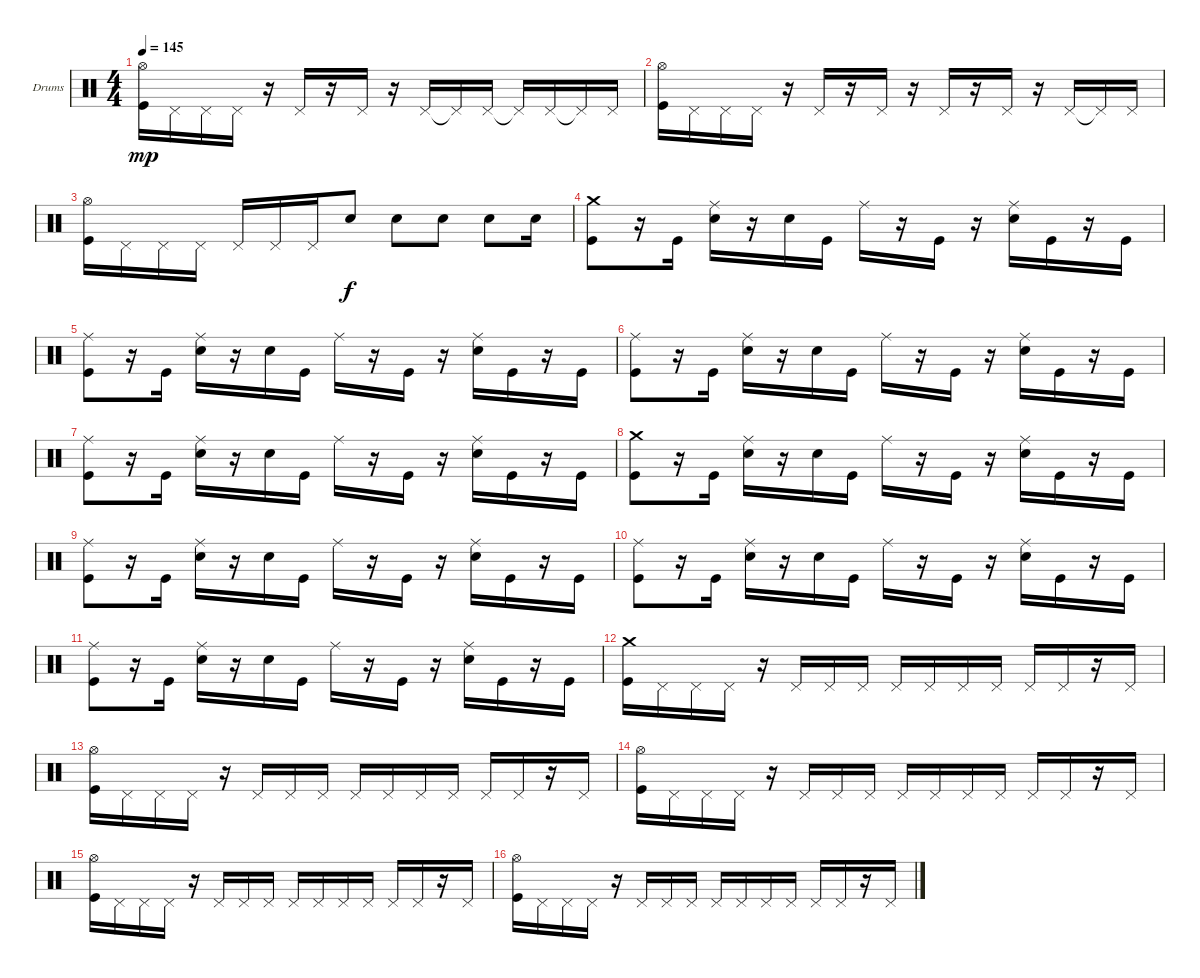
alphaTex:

\defaultSystemsLayout 4
\bracketExtendMode groupsimilarinstruments
\firstSystemTrackNameOrientation horizontal
\otherSystemsTrackNameOrientation horizontal
\track ("Moe Carlson" "Drums") {instrument percussion}
\staff {score}
\articulation defaults
\ts (4 4)
\tempo 145
\clef neutral
\ks c
("Kick (hit)" "Hi-Hat (open)").16{dy mp} "Pedal Hi-Hat (hit)".16 "Pedal Hi-Hat (hit)".16 "Pedal Hi-Hat (hit)".16 r.16 "Pedal Hi-Hat (hit)".16 r.16 "Pedal Hi-Hat (hit)".16 r.16 "Pedal Hi-Hat (hit)".16 "Pedal Hi-Hat (hit)"{t}.16 "Pedal Hi-Hat (hit)".16 "Pedal Hi-Hat (hit)"{t}.16 "Pedal Hi-Hat (hit)".16 "Pedal Hi-Hat (hit)"{t}.16 "Pedal Hi-Hat (hit)".16 |
("Kick (hit)" "Hi-Hat (open)").16 "Pedal Hi-Hat (hit)".16 "Pedal Hi-Hat (hit)".16 "Pedal Hi-Hat (hit)".16 r.16 "Pedal Hi-Hat (hit)".16 r.16 "Pedal Hi-Hat (hit)".16 r.16 "Pedal Hi-Hat (hit)".16 r.16 "Pedal Hi-Hat (hit)".16 r.16 "Pedal Hi-Hat (hit)".16 "Pedal Hi-Hat (hit)"{t}.16 "Pedal Hi-Hat (hit)".16 |
("Kick (hit)" "Hi-Hat (open)").16 "Pedal Hi-Hat (hit)".16 "Pedal Hi-Hat (hit)".16 "Pedal Hi-Hat (hit)".16 "Pedal Hi-Hat (hit)".16 "Pedal Hi-Hat (hit)".16 "Pedal Hi-Hat (hit)".16 "Snare (hit) 2".8{dy f} "Snare (hit) 2".8 "Snare (hit) 2".8 "Snare (hit) 2".8 "Snare (hit) 2".16 |
("Crash medium (hit)" "Kick (hit)").8 r.16 "Kick (hit)".16 ("Snare (hit) 2" "Ride (middle)").16 r.16 "Snare (hit) 2".16 "Kick (hit)".16 "Ride (middle)".16 r.16 "Kick (hit)".16 r.16 ("Snare (hit) 2" "Ride (middle)").16 "Kick (hit)".16 r.16 "Kick (hit)".16 |
("Kick (hit)" "Ride (middle)").8 r.16 "Kick (hit)".16 ("Snare (hit) 2" "Ride (middle)").16 r.16 "Snare (hit) 2".16 "Kick (hit)".16 "Ride (middle)".16 r.16 "Kick (hit)".16 r.16 ("Snare (hit) 2" "Ride (middle)").16 "Kick (hit)".16 r.16 "Kick (hit)".16 |
("Kick (hit)" "Ride (middle)").8 r.16 "Kick (hit)".16 ("Snare (hit) 2" "Ride (middle)").16 r.16 "Snare (hit) 2".16 "Kick (hit)".16 "Ride (middle)".16 r.16 "Kick (hit)".16 r.16 ("Snare (hit) 2" "Ride (middle)").16 "Kick (hit)".16 r.16 "Kick (hit)".16 |
("Kick (hit)" "Ride (middle)").8 r.16 "Kick (hit)".16 ("Snare (hit) 2" "Ride (middle)").16 r.16 "Snare (hit) 2".16 "Kick (hit)".16 "Ride (middle)".16 r.16 "Kick (hit)".16 r.16 ("Snare (hit) 2" "Ride (middle)").16 "Kick (hit)".16 r.16 "Kick (hit)".16 |
("Crash medium (hit)" "Kick (hit)").8 r.16 "Kick (hit)".16 ("Snare (hit) 2" "Ride (middle)").16 r.16 "Snare (hit) 2".16 "Kick (hit)".16 "Ride (middle)".16 r.16 "Kick (hit)".16 r.16 ("Snare (hit) 2" "Ride (middle)").16 "Kick (hit)".16 r.16 "Kick (hit)".16 |
("Kick (hit)" "Ride (middle)").8 r.16 "Kick (hit)".16 ("Snare (hit) 2" "Ride (middle)").16 r.16 "Snare (hit) 2".16 "Kick (hit)".16 "Ride (middle)".16 r.16 "Kick (hit)".16 r.16 ("Snare (hit) 2" "Ride (middle)").16 "Kick (hit)".16 r.16 "Kick (hit)".16 |
("Kick (hit)" "Ride (middle)").8 r.16 "Kick (hit)".16 ("Snare (hit) 2" "Ride (middle)").16 r.16 "Snare (hit) 2".16 "Kick (hit)".16 "Ride (middle)".16 r.16 "Kick (hit)".16 r.16 ("Snare (hit) 2" "Ride (middle)").16 "Kick (hit)".16 r.16 "Kick (hit)".16 |
("Kick (hit)" "Ride (middle)").8 r.16 "Kick (hit)".16 ("Snare (hit) 2" "Ride (middle)").16 r.16 "Snare (hit) 2".16 "Kick (hit)".16 "Ride (middle)".16 r.16 "Kick (hit)".16 r.16 ("Snare (hit) 2" "Ride (middle)").16 "Kick (hit)".16 r.16 "Kick (hit)".16 |
("Kick (hit)" "Crash medium (hit)").16 "Pedal Hi-Hat (hit)".16 "Pedal Hi-Hat (hit)".16 "Pedal Hi-Hat (hit)".16 r.16 "Pedal Hi-Hat (hit)".16 "Pedal Hi-Hat (hit)".16 "Pedal Hi-Hat (hit)".16 "Pedal Hi-Hat (hit)".16 "Pedal Hi-Hat (hit)".16 "Pedal Hi-Hat (hit)".16 "Pedal Hi-Hat (hit)".16 "Pedal Hi-Hat (hit)".16 "Pedal Hi-Hat (hit)".16 r.16 "Pedal Hi-Hat (hit)".16 |
("Kick (hit)" "Hi-Hat (open)").16 "Pedal Hi-Hat (hit)".16 "Pedal Hi-Hat (hit)".16 "Pedal Hi-Hat (hit)".16 r.16 "Pedal Hi-Hat (hit)".16 "Pedal Hi-Hat (hit)".16 "Pedal Hi-Hat (hit)".16 "Pedal Hi-Hat (hit)".16 "Pedal Hi-Hat (hit)".16 "Pedal Hi-Hat (hit)".16 "Pedal Hi-Hat (hit)".16 "Pedal Hi-Hat (hit)".16 "Pedal Hi-Hat (hit)".16 r.16 "Pedal Hi-Hat (hit)".16 |
("Kick (hit)" "Hi-Hat (open)").16 "Pedal Hi-Hat (hit)".16 "Pedal Hi-Hat (hit)".16 "Pedal Hi-Hat (hit)".16 r.16 "Pedal Hi-Hat (hit)".16 "Pedal Hi-Hat (hit)".16 "Pedal Hi-Hat (hit)".16 "Pedal Hi-Hat (hit)".16 "Pedal Hi-Hat (hit)".16 "Pedal Hi-Hat (hit)".16 "Pedal Hi-Hat (hit)".16 "Pedal Hi-Hat (hit)".16 "Pedal Hi-Hat (hit)".16 r.16 "Pedal Hi-Hat (hit)".16 |
("Kick (hit)" "Hi-Hat (open)").16 "Pedal Hi-Hat (hit)".16 "Pedal Hi-Hat (hit)".16 "Pedal Hi-Hat (hit)".16 r.16 "Pedal Hi-Hat (hit)".16 "Pedal Hi-Hat (hit)".16 "Pedal Hi-Hat (hit)".16 "Pedal Hi-Hat (hit)".16 "Pedal Hi-Hat (hit)".16 "Pedal Hi-Hat (hit)".16 "Pedal Hi-Hat (hit)".16 "Pedal Hi-Hat (hit)".16 "Pedal Hi-Hat (hit)".16 r.16 "Pedal Hi-Hat (hit)".16 |
("Kick (hit)" "Hi-Hat (open)").16 "Pedal Hi-Hat (hit)".16 "Pedal Hi-Hat (hit)".16 "Pedal Hi-Hat (hit)".16 r.16 "Pedal Hi-Hat (hit)".16 "Pedal Hi-Hat (hit)".16 "Pedal Hi-Hat (hit)".16 "Pedal Hi-Hat (hit)".16 "Pedal Hi-Hat (hit)".16 "Pedal Hi-Hat (hit)".16 "Pedal Hi-Hat (hit)".16 "Pedal Hi-Hat (hit)".16 "Pedal Hi-Hat (hit)".16 r.16 "Pedal Hi-Hat (hit)".16
